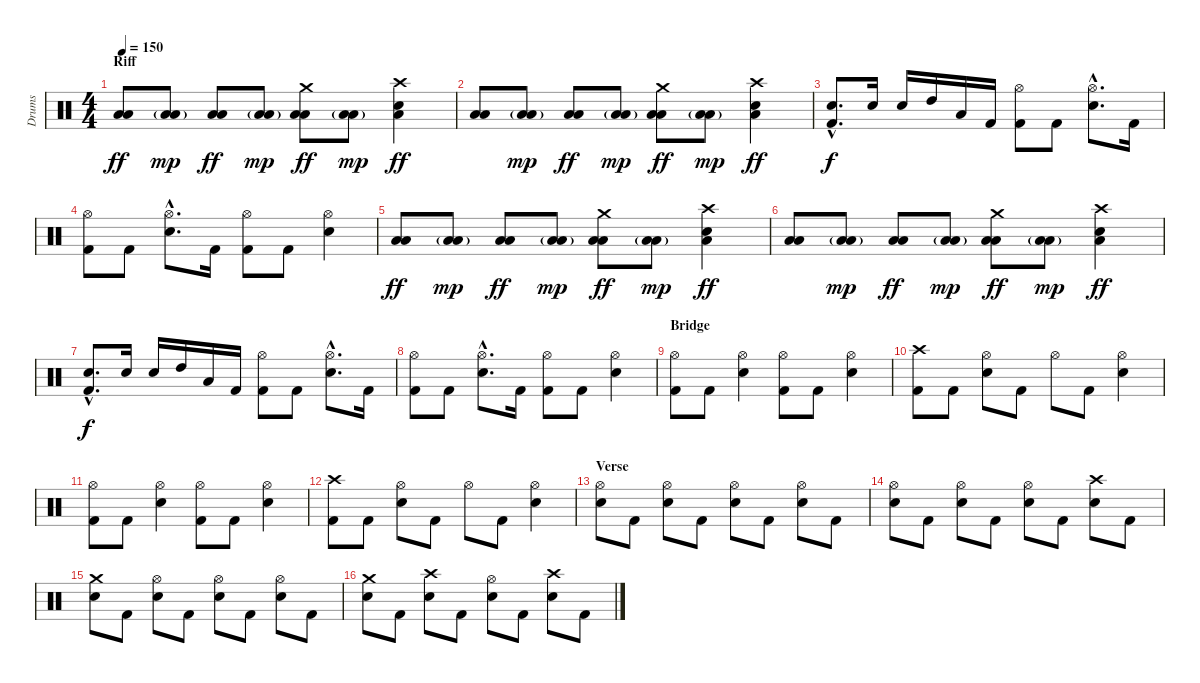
\track ("Drums" "Drums") {instrument percussion}
\staff {score}
\articulation defaults
\ts (4 4)
\section ("" "Riff")
\tempo 150
\clef neutral
\ks c
("Low Tom (hit)" "Low Floor Tom (hit)").8{dy ff} ("Low Tom (hit)"{g} "Low Floor Tom (hit)"{g}).8{dy mp} ("Low Tom (hit)" "Low Floor Tom (hit)").8{dy ff} ("Low Tom (hit)"{g} "Low Floor Tom (hit)"{g}).8{dy mp} ("Crash medium (hit)" "Low Tom (hit)" "Low Floor Tom (hit)").8{dy ff} ("Low Tom (hit)"{g} "Low Floor Tom (hit)"{g}).8{dy mp} ("Crash high (hit)" "Snare (hit) 2" "Low Floor Tom (hit)").4{dy ff} |
("Low Tom (hit)" "Low Floor Tom (hit)").8 ("Low Tom (hit)"{g} "Low Floor Tom (hit)"{g}).8{dy mp} ("Low Tom (hit)" "Low Floor Tom (hit)").8{dy ff} ("Low Tom (hit)"{g} "Low Floor Tom (hit)"{g}).8{dy mp} ("Crash medium (hit)" "Low Tom (hit)" "Low Floor Tom (hit)").8{dy ff} ("Low Tom (hit)"{g} "Low Floor Tom (hit)"{g}).8{dy mp} ("Crash high (hit)" "Snare (hit) 2" "Low Floor Tom (hit)").4{dy ff} |
("Snare (hit) 2"{hac} "Kick (hit) 2"{hac}).8{d dy f} "Snare (hit) 2".16 "Snare (hit) 2".16 "High Tom (hit)".16 "Low Tom (hit)".16 "Kick (hit) 2".16 ("Hi-Hat (open)" "Kick (hit) 2").8 "Kick (hit) 2".8 ("Hi-Hat (open)"{hac} "Snare (hit) 2"{hac}).8{d} "Kick (hit) 2".16 |
("Hi-Hat (open)" "Kick (hit) 2").8 "Kick (hit) 2".8 ("Hi-Hat (open)"{hac} "Snare (hit) 2"{hac}).8{d} "Kick (hit) 2".16 ("Hi-Hat (open)" "Kick (hit) 2").8 "Kick (hit) 2".8 ("Hi-Hat (open)" "Snare (hit) 2").4 |
\section ("" "")
("Low Tom (hit)" "Low Floor Tom (hit)").8{dy ff} ("Low Tom (hit)"{g} "Low Floor Tom (hit)"{g}).8{dy mp} ("Low Tom (hit)" "Low Floor Tom (hit)").8{dy ff} ("Low Tom (hit)"{g} "Low Floor Tom (hit)"{g}).8{dy mp} ("Crash medium (hit)" "Low Tom (hit)" "Low Floor Tom (hit)").8{dy ff} ("Low Tom (hit)"{g} "Low Floor Tom (hit)"{g}).8{dy mp} ("Crash high (hit)" "Snare (hit) 2" "Low Floor Tom (hit)").4{dy ff} |
("Low Tom (hit)" "Low Floor Tom (hit)").8 ("Low Tom (hit)"{g} "Low Floor Tom (hit)"{g}).8{dy mp} ("Low Tom (hit)" "Low Floor Tom (hit)").8{dy ff} ("Low Tom (hit)"{g} "Low Floor Tom (hit)"{g}).8{dy mp} ("Crash medium (hit)" "Low Tom (hit)" "Low Floor Tom (hit)").8{dy ff} ("Low Tom (hit)"{g} "Low Floor Tom (hit)"{g}).8{dy mp} ("Crash high (hit)" "Snare (hit) 2" "Low Floor Tom (hit)").4{dy ff} |
("Snare (hit) 2"{hac} "Kick (hit) 2"{hac}).8{d dy f} "Snare (hit) 2".16 "Snare (hit) 2".16 "High Tom (hit)".16 "Low Tom (hit)".16 "Kick (hit) 2".16 ("Hi-Hat (open)" "Kick (hit) 2").8 "Kick (hit) 2".8 ("Hi-Hat (open)"{hac} "Snare (hit) 2"{hac}).8{d} "Kick (hit) 2".16 |
("Hi-Hat (open)" "Kick (hit) 2").8 "Kick (hit) 2".8 ("Hi-Hat (open)"{hac} "Snare (hit) 2"{hac}).8{d} "Kick (hit) 2".16 ("Hi-Hat (open)" "Kick (hit) 2").8 "Kick (hit) 2".8 ("Hi-Hat (open)" "Snare (hit) 2").4 |
\section ("" "Bridge")
("Hi-Hat (open)" "Kick (hit) 2").8 "Kick (hit) 2".8 ("Hi-Hat (open)" "Snare (hit) 2").4 ("Hi-Hat (open)" "Kick (hit) 2").8 "Kick (hit) 2".8 ("Hi-Hat (open)" "Snare (hit) 2").4 |
("Crash high (hit)" "Kick (hit) 2").8 "Kick (hit) 2".8 ("Hi-Hat (open)" "Snare (hit) 2").8 "Kick (hit) 2".8 "Hi-Hat (open)".8 "Kick (hit) 2".8 ("Hi-Hat (open)" "Snare (hit) 2").4 |
\section ("" "")
("Hi-Hat (open)" "Kick (hit) 2").8 "Kick (hit) 2".8 ("Hi-Hat (open)" "Snare (hit) 2").4 ("Hi-Hat (open)" "Kick (hit) 2").8 "Kick (hit) 2".8 ("Hi-Hat (open)" "Snare (hit) 2").4 |
("Crash high (hit)" "Kick (hit) 2").8 "Kick (hit) 2".8 ("Hi-Hat (open)" "Snare (hit) 2").8 "Kick (hit) 2".8 "Hi-Hat (open)".8 "Kick (hit) 2".8 ("Hi-Hat (open)" "Snare (hit) 2").4 |
\section ("" "Verse")
("Hi-Hat (open)" "Snare (hit) 2").8 "Kick (hit) 2".8 ("Hi-Hat (open)" "Snare (hit) 2").8 "Kick (hit) 2".8 ("Hi-Hat (open)" "Snare (hit) 2").8 "Kick (hit) 2".8 ("Hi-Hat (open)" "Snare (hit) 2").8 "Kick (hit) 2".8 |
("Hi-Hat (open)" "Snare (hit) 2").8 "Kick (hit) 2".8 ("Hi-Hat (open)" "Snare (hit) 2").8 "Kick (hit) 2".8 ("Hi-Hat (open)" "Snare (hit) 2").8 "Kick (hit) 2".8 ("Crash high (hit)" "Snare (hit) 2").8 "Kick (hit) 2".8 |
("Crash medium (hit)" "Snare (hit) 2").8 "Kick (hit) 2".8 ("Hi-Hat (open)" "Snare (hit) 2").8 "Kick (hit) 2".8 ("Hi-Hat (open)" "Snare (hit) 2").8 "Kick (hit) 2".8 ("Hi-Hat (open)" "Snare (hit) 2").8 "Kick (hit) 2".8 |
("Crash medium (hit)" "Snare (hit) 2").8 "Kick (hit) 2".8 ("Crash high (hit)" "Snare (hit) 2").8 "Kick (hit) 2".8 ("Hi-Hat (open)" "Snare (hit) 2").8 "Kick (hit) 2".8 ("Crash high (hit)" "Snare (hit) 2").8 "Kick (hit) 2".8
